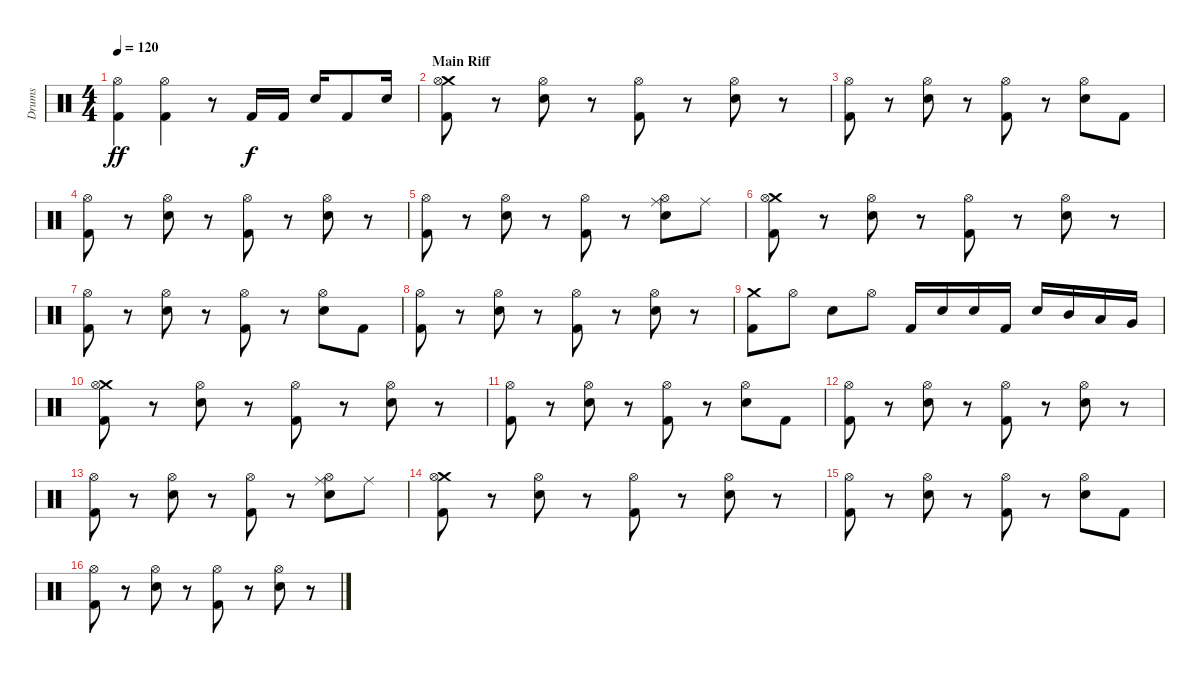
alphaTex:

\track ("Drums" "Drums") {instrument percussion}
\staff {score}
\articulation defaults
\ts (4 4)
\tempo 120
\clef neutral
\ks c
("Hi-Hat (open)" "Kick (hit) 2").4{dy ff} ("Hi-Hat (open)" "Kick (hit) 2").4 r.8 "Kick (hit) 2".16{dy f} "Kick (hit) 2".16 "Electric Snare (hit)".16 "Kick (hit) 2".8 "Electric Snare (hit)".16 |
\section ("" "Main Riff")
("Crash medium (hit)" "Hi-Hat (open)" "Kick (hit) 2").8 r.8 ("Hi-Hat (open)" "Electric Snare (hit)").8 r.8 ("Hi-Hat (open)" "Kick (hit) 2").8 r.8 ("Hi-Hat (open)" "Electric Snare (hit)").8 r.8 |
("Hi-Hat (open)" "Kick (hit) 2").8 r.8 ("Hi-Hat (open)" "Electric Snare (hit)").8 r.8 ("Hi-Hat (open)" "Kick (hit) 2").8 r.8 ("Hi-Hat (open)" "Electric Snare (hit)").8 "Kick (hit) 2".8 |
("Hi-Hat (open)" "Kick (hit) 2").8 r.8 ("Hi-Hat (open)" "Electric Snare (hit)").8 r.8 ("Hi-Hat (open)" "Kick (hit) 2").8 r.8 ("Hi-Hat (open)" "Electric Snare (hit)").8 r.8 |
("Hi-Hat (open)" "Kick (hit) 2").8 r.8 ("Hi-Hat (open)" "Electric Snare (hit)").8 r.8 ("Hi-Hat (open)" "Kick (hit) 2").8 r.8 ("Ride (middle)" "Hi-Hat (open)" "Electric Snare (hit)").8 "Ride (middle)".8 |
("Crash medium (hit)" "Hi-Hat (open)" "Kick (hit) 2").8 r.8 ("Hi-Hat (open)" "Electric Snare (hit)").8 r.8 ("Hi-Hat (open)" "Kick (hit) 2").8 r.8 ("Hi-Hat (open)" "Electric Snare (hit)").8 r.8 |
("Hi-Hat (open)" "Kick (hit) 2").8 r.8 ("Hi-Hat (open)" "Electric Snare (hit)").8 r.8 ("Hi-Hat (open)" "Kick (hit) 2").8 r.8 ("Hi-Hat (open)" "Electric Snare (hit)").8 "Kick (hit) 2".8 |
("Hi-Hat (open)" "Kick (hit) 2").8 r.8 ("Hi-Hat (open)" "Electric Snare (hit)").8 r.8 ("Hi-Hat (open)" "Kick (hit) 2").8 r.8 ("Hi-Hat (open)" "Electric Snare (hit)").8 r.8 |
("Crash medium (hit)" "Kick (hit) 2").8 "Hi-Hat (open)".8 "Electric Snare (hit)".8 "Hi-Hat (open)".8 "Kick (hit) 2".16 "Electric Snare (hit)".16 "Electric Snare (hit)".16 "Kick (hit) 2".16 "Electric Snare (hit)".16 "Mid Tom (hit)".16 "Low Tom (hit)".16 "Very Low Tom (hit)".16 |
("Crash medium (hit)" "Hi-Hat (open)" "Kick (hit) 2").8 r.8 ("Hi-Hat (open)" "Electric Snare (hit)").8 r.8 ("Hi-Hat (open)" "Kick (hit) 2").8 r.8 ("Hi-Hat (open)" "Electric Snare (hit)").8 r.8 |
("Hi-Hat (open)" "Kick (hit) 2").8 r.8 ("Hi-Hat (open)" "Electric Snare (hit)").8 r.8 ("Hi-Hat (open)" "Kick (hit) 2").8 r.8 ("Hi-Hat (open)" "Electric Snare (hit)").8 "Kick (hit) 2".8 |
("Hi-Hat (open)" "Kick (hit) 2").8 r.8 ("Hi-Hat (open)" "Electric Snare (hit)").8 r.8 ("Hi-Hat (open)" "Kick (hit) 2").8 r.8 ("Hi-Hat (open)" "Electric Snare (hit)").8 r.8 |
("Hi-Hat (open)" "Kick (hit) 2").8 r.8 ("Hi-Hat (open)" "Electric Snare (hit)").8 r.8 ("Hi-Hat (open)" "Kick (hit) 2").8 r.8 ("Ride (middle)" "Hi-Hat (open)" "Electric Snare (hit)").8 "Ride (middle)".8 |
("Crash medium (hit)" "Hi-Hat (open)" "Kick (hit) 2").8 r.8 ("Hi-Hat (open)" "Electric Snare (hit)").8 r.8 ("Hi-Hat (open)" "Kick (hit) 2").8 r.8 ("Hi-Hat (open)" "Electric Snare (hit)").8 r.8 |
("Hi-Hat (open)" "Kick (hit) 2").8 r.8 ("Hi-Hat (open)" "Electric Snare (hit)").8 r.8 ("Hi-Hat (open)" "Kick (hit) 2").8 r.8 ("Hi-Hat (open)" "Electric Snare (hit)").8 "Kick (hit) 2".8 |
("Hi-Hat (open)" "Kick (hit) 2").8 r.8 ("Hi-Hat (open)" "Electric Snare (hit)").8 r.8 ("Hi-Hat (open)" "Kick (hit) 2").8 r.8 ("Hi-Hat (open)" "Electric Snare (hit)").8 r.8
